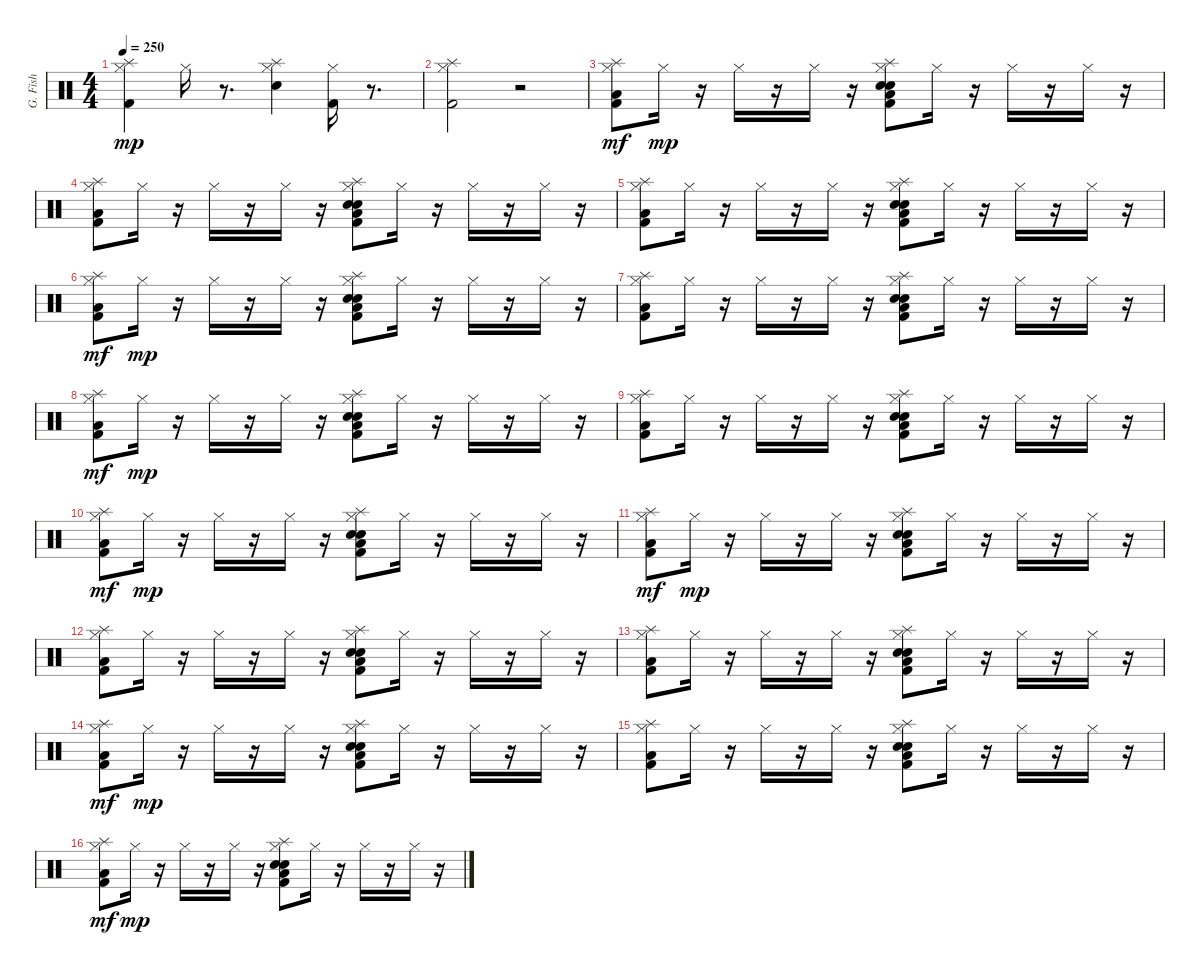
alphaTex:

\track ("G. Fish" "G. Fish") {instrument percussion}
\staff {score}
\articulation defaults
\ts (4 4)
\tempo 250
\clef neutral
\ks c
("Splash (hit)" "Hi-Hat (closed)" "Kick (hit) 2").4{dy mp} "Hi-Hat (closed)".16 r.8{d} ("Splash (hit)" "Hi-Hat (closed)" "Electric Snare (hit)").4 ("Kick (hit) 2" "Hi-Hat (closed)").16 r.8{d} |
("Splash (hit)" "Kick (hit) 2" "Hi-Hat (closed)").2 r.2 |
("Low Floor Tom (hit)" "Hi-Hat (closed)" "Kick (hit) 2" "Splash (hit)").8{dy mf} "Hi-Hat (closed)".16{dy mp} r.16 "Hi-Hat (closed)".16 r.16 "Hi-Hat (closed)".16 r.16 ("Low Floor Tom (hit)" "Snare (hit) 2" "Electric Snare (hit)" "Kick (hit) 2" "Splash (hit)" "Hi-Hat (closed)").8 "Hi-Hat (closed)".16 r.16 "Hi-Hat (closed)".16 r.16 "Hi-Hat (closed)".16 r.16 |
("Low Floor Tom (hit)" "Kick (hit) 2" "Splash (hit)" "Hi-Hat (closed)").8 "Hi-Hat (closed)".16 r.16 "Hi-Hat (closed)".16 r.16 "Hi-Hat (closed)".16 r.16 ("Snare (hit) 2" "Electric Snare (hit)" "Kick (hit) 2" "Splash (hit)" "Low Floor Tom (hit)" "Hi-Hat (closed)").8 "Hi-Hat (closed)".16 r.16 "Hi-Hat (closed)".16 r.16 "Hi-Hat (closed)".16 r.16 |
("Kick (hit) 2" "Splash (hit)" "Hi-Hat (closed)" "Low Floor Tom (hit)").8 "Hi-Hat (closed)".16 r.16 "Hi-Hat (closed)".16 r.16 "Hi-Hat (closed)".16 r.16 ("Snare (hit) 2" "Kick (hit) 2" "Splash (hit)" "Electric Snare (hit)" "Low Floor Tom (hit)" "Hi-Hat (closed)").8 "Hi-Hat (closed)".16 r.16 "Hi-Hat (closed)".16 r.16 "Hi-Hat (closed)".16 r.16 |
("Hi-Hat (closed)" "Low Floor Tom (hit)" "Kick (hit) 2" "Splash (hit)").8{dy mf} "Hi-Hat (closed)".16{dy mp} r.16 "Hi-Hat (closed)".16 r.16 "Hi-Hat (closed)".16 r.16 ("Snare (hit) 2" "Electric Snare (hit)" "Kick (hit) 2" "Splash (hit)" "Low Floor Tom (hit)" "Hi-Hat (closed)").8 "Hi-Hat (closed)".16 r.16 "Hi-Hat (closed)".16 r.16 "Hi-Hat (closed)".16 r.16 |
("Kick (hit) 2" "Splash (hit)" "Hi-Hat (closed)" "Low Floor Tom (hit)").8 "Hi-Hat (closed)".16 r.16 "Hi-Hat (closed)".16 r.16 "Hi-Hat (closed)".16 r.16 ("Snare (hit) 2" "Kick (hit) 2" "Splash (hit)" "Electric Snare (hit)" "Low Floor Tom (hit)" "Hi-Hat (closed)").8 "Hi-Hat (closed)".16 r.16 "Hi-Hat (closed)".16 r.16 "Hi-Hat (closed)".16 r.16 |
("Hi-Hat (closed)" "Low Floor Tom (hit)" "Kick (hit) 2" "Splash (hit)").8{dy mf} "Hi-Hat (closed)".16{dy mp} r.16 "Hi-Hat (closed)".16 r.16 "Hi-Hat (closed)".16 r.16 ("Snare (hit) 2" "Electric Snare (hit)" "Kick (hit) 2" "Splash (hit)" "Low Floor Tom (hit)" "Hi-Hat (closed)").8 "Hi-Hat (closed)".16 r.16 "Hi-Hat (closed)".16 r.16 "Hi-Hat (closed)".16 r.16 |
("Kick (hit) 2" "Splash (hit)" "Hi-Hat (closed)" "Low Floor Tom (hit)").8 "Hi-Hat (closed)".16 r.16 "Hi-Hat (closed)".16 r.16 "Hi-Hat (closed)".16 r.16 ("Snare (hit) 2" "Kick (hit) 2" "Splash (hit)" "Electric Snare (hit)" "Low Floor Tom (hit)" "Hi-Hat (closed)").8 "Hi-Hat (closed)".16 r.16 "Hi-Hat (closed)".16 r.16 "Hi-Hat (closed)".16 r.16 |
("Hi-Hat (closed)" "Low Floor Tom (hit)" "Kick (hit) 2" "Splash (hit)").8{dy mf} "Hi-Hat (closed)".16{dy mp} r.16 "Hi-Hat (closed)".16 r.16 "Hi-Hat (closed)".16 r.16 ("Snare (hit) 2" "Electric Snare (hit)" "Kick (hit) 2" "Splash (hit)" "Low Floor Tom (hit)" "Hi-Hat (closed)").8 "Hi-Hat (closed)".16 r.16 "Hi-Hat (closed)".16 r.16 "Hi-Hat (closed)".16 r.16 |
("Low Floor Tom (hit)" "Hi-Hat (closed)" "Kick (hit) 2" "Splash (hit)").8{dy mf} "Hi-Hat (closed)".16{dy mp} r.16 "Hi-Hat (closed)".16 r.16 "Hi-Hat (closed)".16 r.16 ("Low Floor Tom (hit)" "Snare (hit) 2" "Electric Snare (hit)" "Kick (hit) 2" "Splash (hit)" "Hi-Hat (closed)").8 "Hi-Hat (closed)".16 r.16 "Hi-Hat (closed)".16 r.16 "Hi-Hat (closed)".16 r.16 |
("Low Floor Tom (hit)" "Kick (hit) 2" "Splash (hit)" "Hi-Hat (closed)").8 "Hi-Hat (closed)".16 r.16 "Hi-Hat (closed)".16 r.16 "Hi-Hat (closed)".16 r.16 ("Snare (hit) 2" "Electric Snare (hit)" "Kick (hit) 2" "Splash (hit)" "Low Floor Tom (hit)" "Hi-Hat (closed)").8 "Hi-Hat (closed)".16 r.16 "Hi-Hat (closed)".16 r.16 "Hi-Hat (closed)".16 r.16 |
("Kick (hit) 2" "Splash (hit)" "Hi-Hat (closed)" "Low Floor Tom (hit)").8 "Hi-Hat (closed)".16 r.16 "Hi-Hat (closed)".16 r.16 "Hi-Hat (closed)".16 r.16 ("Snare (hit) 2" "Kick (hit) 2" "Splash (hit)" "Electric Snare (hit)" "Low Floor Tom (hit)" "Hi-Hat (closed)").8 "Hi-Hat (closed)".16 r.16 "Hi-Hat (closed)".16 r.16 "Hi-Hat (closed)".16 r.16 |
("Hi-Hat (closed)" "Low Floor Tom (hit)" "Kick (hit) 2" "Splash (hit)").8{dy mf} "Hi-Hat (closed)".16{dy mp} r.16 "Hi-Hat (closed)".16 r.16 "Hi-Hat (closed)".16 r.16 ("Snare (hit) 2" "Electric Snare (hit)" "Kick (hit) 2" "Splash (hit)" "Low Floor Tom (hit)" "Hi-Hat (closed)").8 "Hi-Hat (closed)".16 r.16 "Hi-Hat (closed)".16 r.16 "Hi-Hat (closed)".16 r.16 |
("Kick (hit) 2" "Splash (hit)" "Hi-Hat (closed)" "Low Floor Tom (hit)").8 "Hi-Hat (closed)".16 r.16 "Hi-Hat (closed)".16 r.16 "Hi-Hat (closed)".16 r.16 ("Snare (hit) 2" "Kick (hit) 2" "Splash (hit)" "Electric Snare (hit)" "Low Floor Tom (hit)" "Hi-Hat (closed)").8 "Hi-Hat (closed)".16 r.16 "Hi-Hat (closed)".16 r.16 "Hi-Hat (closed)".16 r.16 |
("Hi-Hat (closed)" "Low Floor Tom (hit)" "Kick (hit) 2" "Splash (hit)").8{dy mf} "Hi-Hat (closed)".16{dy mp} r.16 "Hi-Hat (closed)".16 r.16 "Hi-Hat (closed)".16 r.16 ("Snare (hit) 2" "Electric Snare (hit)" "Kick (hit) 2" "Splash (hit)" "Low Floor Tom (hit)" "Hi-Hat (closed)").8 "Hi-Hat (closed)".16 r.16 "Hi-Hat (closed)".16 r.16 "Hi-Hat (closed)".16 r.16
